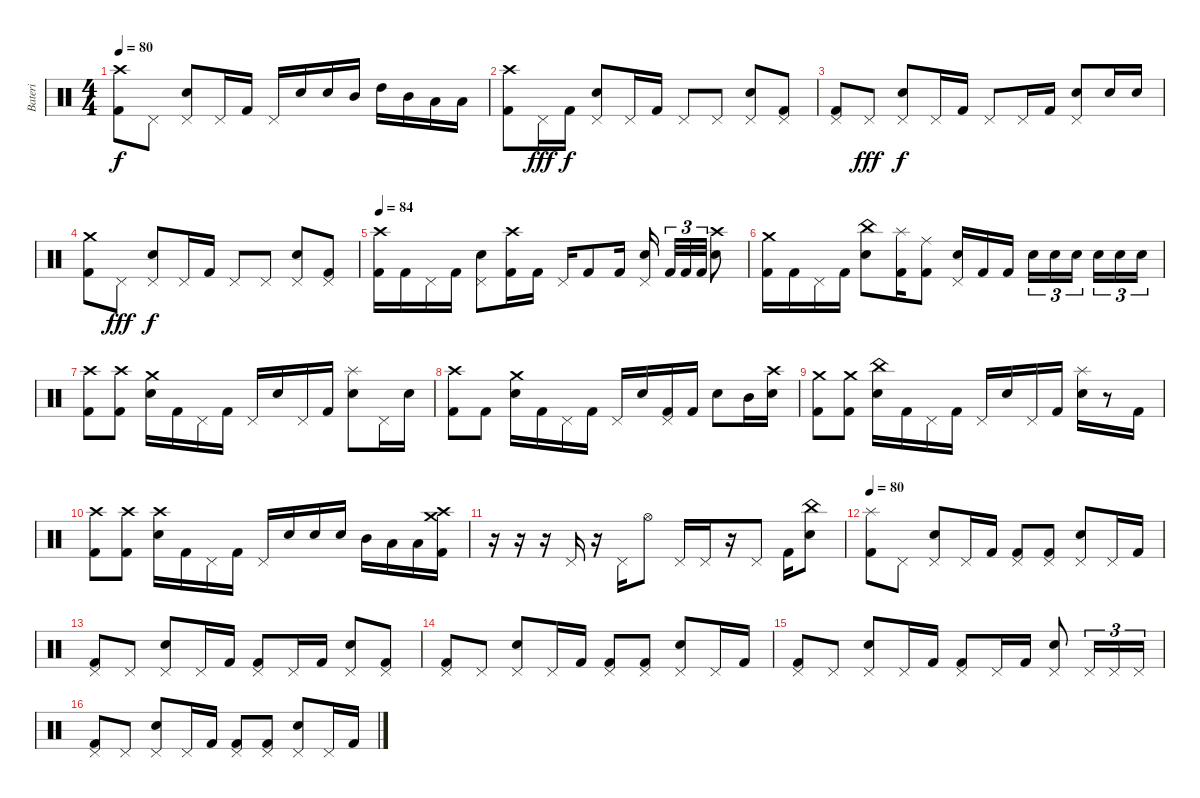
\track ("Bateri" "Bateri") {instrument percussion}
\staff {score}
\articulation defaults
\ts (4 4)
\tempo 80
\clef neutral
\ks c
("Crash high (hit)" "Kick (hit) 2").8{dy f} "Pedal Hi-Hat (hit)".8 ("Pedal Hi-Hat (hit)" "Electric Snare (hit)").8 "Pedal Hi-Hat (hit)".16 "Kick (hit) 2".16 "Pedal Hi-Hat (hit)".16 "Electric Snare (hit)".16 "Electric Snare (hit)".16 "Mid Tom (hit)".16 "High Tom (hit)".16 "Mid Tom (hit)".16 "Low Tom (hit)".16 "Low Tom (hit)".16 |
("Crash high (hit)" "Kick (hit) 2").8 "Pedal Hi-Hat (hit)".16{dy fff} "Kick (hit) 2".16{dy f} ("Pedal Hi-Hat (hit)" "Electric Snare (hit)").8 "Pedal Hi-Hat (hit)".16 "Kick (hit) 2".16 "Pedal Hi-Hat (hit)".8 "Pedal Hi-Hat (hit)".8 ("Pedal Hi-Hat (hit)" "Electric Snare (hit)").8 ("Pedal Hi-Hat (hit)" "Kick (hit) 2").8 |
("Pedal Hi-Hat (hit)" "Kick (hit) 2").8 "Pedal Hi-Hat (hit)".8{dy fff} ("Pedal Hi-Hat (hit)" "Electric Snare (hit)").8{dy f} "Pedal Hi-Hat (hit)".16 "Kick (hit) 2".16 "Pedal Hi-Hat (hit)".8 "Pedal Hi-Hat (hit)".16 "Kick (hit) 2".16 ("Pedal Hi-Hat (hit)" "Electric Snare (hit)").8 "Electric Snare (hit)".16 "Electric Snare (hit)".16 |
("Crash medium (hit)" "Kick (hit) 2").8 "Pedal Hi-Hat (hit)".8{dy fff} ("Pedal Hi-Hat (hit)" "Electric Snare (hit)").8{dy f} "Pedal Hi-Hat (hit)".16 "Kick (hit) 2".16 "Pedal Hi-Hat (hit)".8 "Pedal Hi-Hat (hit)".8 ("Pedal Hi-Hat (hit)" "Electric Snare (hit)").8 ("Pedal Hi-Hat (hit)" "Kick (hit) 2").8 |
\tempo 84
("Crash high (hit)" "Kick (hit) 2").16 "Kick (hit) 2".16 "Pedal Hi-Hat (hit)".16 "Kick (hit) 2".16 ("Pedal Hi-Hat (hit)" "Electric Snare (hit)").8 ("Crash high (hit)" "Kick (hit) 2").16 "Kick (hit) 2".16 "Pedal Hi-Hat (hit)".16 "Kick (hit) 2".8 "Kick (hit) 2".16 ("Pedal Hi-Hat (hit)" "Electric Snare (hit)").16 "Kick (hit) 2".32{tu (3 2)} "Kick (hit) 2".32{tu (3 2)} "Kick (hit) 2".32{tu (3 2)} ("Crash high (hit)" "Electric Snare (hit)").8 |
("Crash medium (hit)" "Kick (hit) 2").16 "Kick (hit) 2".16 "Pedal Hi-Hat (hit)".16 "Kick (hit) 2".16 ("China (hit)" "Electric Snare (hit)").8 ("Splash (hit)" "Kick (hit) 2").16 ("Ride (middle)" "Kick (hit) 2").8 ("Pedal Hi-Hat (hit)" "Electric Snare (hit)").16 "Kick (hit) 2".16 "Kick (hit) 2".16 "Electric Snare (hit)".16{tu (3 2)} "Electric Snare (hit)".16{tu (3 2)} "Electric Snare (hit)".16{tu (3 2)} "Electric Snare (hit)".16{tu (3 2)} "Electric Snare (hit)".16{tu (3 2)} "Electric Snare (hit)".16{tu (3 2)} |
("Crash high (hit)" "Kick (hit) 2").8 ("Crash high (hit)" "Kick (hit) 2").8 ("Crash medium (hit)" "Electric Snare (hit)").16 "Kick (hit) 2".16 "Pedal Hi-Hat (hit)".16 "Kick (hit) 2".16 "Pedal Hi-Hat (hit)".16 "Electric Snare (hit)".16 "Pedal Hi-Hat (hit)".16 "Kick (hit) 2".16 ("Splash (hit)" "Electric Snare (hit)").8 "Pedal Hi-Hat (hit)".16 "Electric Snare (hit)".16 |
("Crash high (hit)" "Kick (hit) 2").8 "Kick (hit) 2".8 ("Crash medium (hit)" "Electric Snare (hit)").16 "Kick (hit) 2".16 "Pedal Hi-Hat (hit)".16 "Kick (hit) 2".16 "Pedal Hi-Hat (hit)".16 "Electric Snare (hit)".16 ("Pedal Hi-Hat (hit)" "Kick (hit) 2").16 "Kick (hit) 2".16 "Electric Snare (hit)".8 "Mid Tom (hit)".16 ("Crash high (hit)" "Electric Snare (hit)").16 |
("Crash medium (hit)" "Kick (hit) 2").8 ("Crash medium (hit)" "Kick (hit) 2").8 ("China (hit)" "Electric Snare (hit)").16 "Kick (hit) 2".16 "Pedal Hi-Hat (hit)".16 "Kick (hit) 2".16 "Pedal Hi-Hat (hit)".16 "Electric Snare (hit)".16 "Pedal Hi-Hat (hit)".16 "Kick (hit) 2".16 ("Splash (hit)" "Electric Snare (hit)").16 r.8 "Kick (hit) 2".16 |
("Crash high (hit)" "Kick (hit) 2").8 ("Crash high (hit)" "Kick (hit) 2").8 ("Crash high (hit)" "Electric Snare (hit)").16 "Kick (hit) 2".16 "Pedal Hi-Hat (hit)".16 "Kick (hit) 2".16 "Pedal Hi-Hat (hit)".16 "Electric Snare (hit)".16 "Electric Snare (hit)".16 "Electric Snare (hit)".16 "Mid Tom (hit)".16 "Low Tom (hit)".16 "Low Tom (hit)".16 ("Crash medium (hit)" "Crash high (hit)" "Kick (hit) 2").16 |
r.16 r.16 r.16 "Pedal Hi-Hat (hit)".16 r.16 "Pedal Hi-Hat (hit)".16 "Hi-Hat (open)".8 "Pedal Hi-Hat (hit)".16 "Pedal Hi-Hat (hit)".16 r.16 "Pedal Hi-Hat (hit)".8 "Kick (hit) 2".16 ("China (hit)" "Electric Snare (hit)").8 |
\tempo 80
("Splash (hit)" "Kick (hit) 2").8 "Pedal Hi-Hat (hit)".8 ("Pedal Hi-Hat (hit)" "Electric Snare (hit)").8 "Pedal Hi-Hat (hit)".16 "Kick (hit) 2".16 ("Pedal Hi-Hat (hit)" "Kick (hit) 2").8 ("Pedal Hi-Hat (hit)" "Kick (hit) 2").8 ("Pedal Hi-Hat (hit)" "Electric Snare (hit)").8 "Pedal Hi-Hat (hit)".16 "Kick (hit) 2".16 |
("Pedal Hi-Hat (hit)" "Kick (hit) 2").8 "Pedal Hi-Hat (hit)".8 ("Pedal Hi-Hat (hit)" "Electric Snare (hit)").8 "Pedal Hi-Hat (hit)".16 "Kick (hit) 2".16 ("Pedal Hi-Hat (hit)" "Kick (hit) 2").8 "Pedal Hi-Hat (hit)".16 "Kick (hit) 2".16 ("Pedal Hi-Hat (hit)" "Electric Snare (hit)").8 ("Pedal Hi-Hat (hit)" "Kick (hit) 2").8 |
("Pedal Hi-Hat (hit)" "Kick (hit) 2").8 "Pedal Hi-Hat (hit)".8 ("Pedal Hi-Hat (hit)" "Electric Snare (hit)").8 "Pedal Hi-Hat (hit)".16 "Kick (hit) 2".16 ("Pedal Hi-Hat (hit)" "Kick (hit) 2").8 ("Pedal Hi-Hat (hit)" "Kick (hit) 2").8 ("Pedal Hi-Hat (hit)" "Electric Snare (hit)").8 "Pedal Hi-Hat (hit)".16 "Kick (hit) 2".16 |
("Pedal Hi-Hat (hit)" "Kick (hit) 2").8 "Pedal Hi-Hat (hit)".8 ("Pedal Hi-Hat (hit)" "Electric Snare (hit)").8 "Pedal Hi-Hat (hit)".16 "Kick (hit) 2".16 ("Pedal Hi-Hat (hit)" "Kick (hit) 2").8 "Pedal Hi-Hat (hit)".16 "Kick (hit) 2".16 ("Pedal Hi-Hat (hit)" "Electric Snare (hit)").8 "Pedal Hi-Hat (hit)".16{tu (3 2)} "Pedal Hi-Hat (hit)".16{tu (3 2)} "Pedal Hi-Hat (hit)".16{tu (3 2)} |
("Pedal Hi-Hat (hit)" "Kick (hit) 2").8 "Pedal Hi-Hat (hit)".8 ("Pedal Hi-Hat (hit)" "Electric Snare (hit)").8 "Pedal Hi-Hat (hit)".16 "Kick (hit) 2".16 ("Pedal Hi-Hat (hit)" "Kick (hit) 2").8 ("Pedal Hi-Hat (hit)" "Kick (hit) 2").8 ("Pedal Hi-Hat (hit)" "Electric Snare (hit)").8 "Pedal Hi-Hat (hit)".16 "Kick (hit) 2".16
